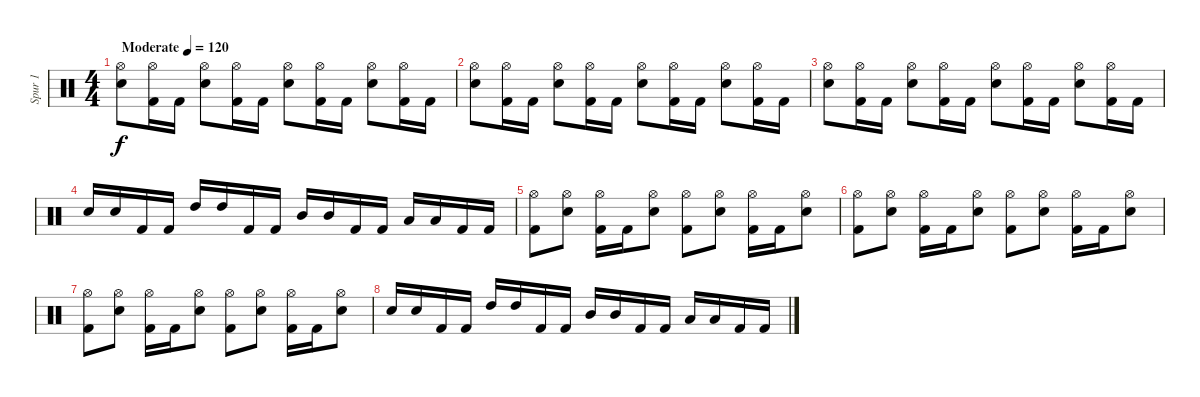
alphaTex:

\track ("Spur 1" "Spur 1") {instrument percussion}
\staff {score}
\articulation defaults
\ts (4 4)
\tempo (120 "Moderate")
\clef neutral
\ks c
("Hi-Hat (open)" "Snare (hit) 2").8{dy f} ("Hi-Hat (open)" "Kick (hit) 2").16 "Kick (hit) 2".16 ("Hi-Hat (open)" "Snare (hit) 2").8 ("Hi-Hat (open)" "Kick (hit) 2").16 "Kick (hit) 2".16 ("Hi-Hat (open)" "Snare (hit) 2").8 ("Hi-Hat (open)" "Kick (hit) 2").16 "Kick (hit) 2".16 ("Hi-Hat (open)" "Snare (hit) 2").8 ("Hi-Hat (open)" "Kick (hit) 2").16 "Kick (hit) 2".16 |
("Hi-Hat (open)" "Snare (hit) 2").8 ("Hi-Hat (open)" "Kick (hit) 2").16 "Kick (hit) 2".16 ("Hi-Hat (open)" "Snare (hit) 2").8 ("Hi-Hat (open)" "Kick (hit) 2").16 "Kick (hit) 2".16 ("Hi-Hat (open)" "Snare (hit) 2").8 ("Hi-Hat (open)" "Kick (hit) 2").16 "Kick (hit) 2".16 ("Hi-Hat (open)" "Snare (hit) 2").8 ("Hi-Hat (open)" "Kick (hit) 2").16 "Kick (hit) 2".16 |
("Hi-Hat (open)" "Snare (hit) 2").8 ("Hi-Hat (open)" "Kick (hit) 2").16 "Kick (hit) 2".16 ("Hi-Hat (open)" "Snare (hit) 2").8 ("Hi-Hat (open)" "Kick (hit) 2").16 "Kick (hit) 2".16 ("Hi-Hat (open)" "Snare (hit) 2").8 ("Hi-Hat (open)" "Kick (hit) 2").16 "Kick (hit) 2".16 ("Hi-Hat (open)" "Snare (hit) 2").8 ("Hi-Hat (open)" "Kick (hit) 2").16 "Kick (hit) 2".16 |
"Snare (hit) 2".16 "Snare (hit) 2".16 "Kick (hit) 2".16 "Kick (hit) 2".16 "High Tom (hit)".16 "High Tom (hit)".16 "Kick (hit) 2".16 "Kick (hit) 2".16 "Mid Tom (hit)".16 "Mid Tom (hit)".16 "Kick (hit) 2".16 "Kick (hit) 2".16 "Low Floor Tom (hit)".16 "Low Floor Tom (hit)".16 "Kick (hit) 2".16 "Kick (hit) 2".16 |
("Kick (hit) 2" "Hi-Hat (open)").8 ("Snare (hit) 2" "Hi-Hat (open)").8 ("Kick (hit) 2" "Hi-Hat (open)").16 "Kick (hit) 2".16 ("Snare (hit) 2" "Hi-Hat (open)").8 ("Kick (hit) 2" "Hi-Hat (open)").8 ("Snare (hit) 2" "Hi-Hat (open)").8 ("Kick (hit) 2" "Hi-Hat (open)").16 "Kick (hit) 2".16 ("Snare (hit) 2" "Hi-Hat (open)").8 |
("Kick (hit) 2" "Hi-Hat (open)").8 ("Snare (hit) 2" "Hi-Hat (open)").8 ("Kick (hit) 2" "Hi-Hat (open)").16 "Kick (hit) 2".16 ("Snare (hit) 2" "Hi-Hat (open)").8 ("Kick (hit) 2" "Hi-Hat (open)").8 ("Snare (hit) 2" "Hi-Hat (open)").8 ("Kick (hit) 2" "Hi-Hat (open)").16 "Kick (hit) 2".16 ("Snare (hit) 2" "Hi-Hat (open)").8 |
("Kick (hit) 2" "Hi-Hat (open)").8 ("Snare (hit) 2" "Hi-Hat (open)").8 ("Kick (hit) 2" "Hi-Hat (open)").16 "Kick (hit) 2".16 ("Snare (hit) 2" "Hi-Hat (open)").8 ("Kick (hit) 2" "Hi-Hat (open)").8 ("Snare (hit) 2" "Hi-Hat (open)").8 ("Kick (hit) 2" "Hi-Hat (open)").16 "Kick (hit) 2".16 ("Snare (hit) 2" "Hi-Hat (open)").8 |
"Snare (hit) 2".16 "Snare (hit) 2".16 "Kick (hit) 2".16 "Kick (hit) 2".16 "High Tom (hit)".16 "High Tom (hit)".16 "Kick (hit) 2".16 "Kick (hit) 2".16 "Mid Tom (hit)".16 "Mid Tom (hit)".16 "Kick (hit) 2".16 "Kick (hit) 2".16 "Low Floor Tom (hit)".16 "Low Floor Tom (hit)".16 "Kick (hit) 2".16 "Kick (hit) 2".16
